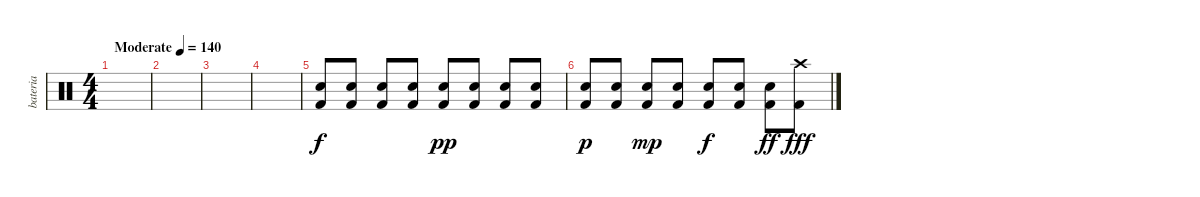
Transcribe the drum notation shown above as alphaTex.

\track ("bateria" "bateria") {instrument percussion}
\staff {score}
\articulation defaults
\ts (4 4)
\tempo (140 "Moderate")
\clef neutral
\ks c
|
|
|
|
("Electric Snare (hit)" "Kick (hit) 2").8 ("Electric Snare (hit)" "Kick (hit) 2").8 ("Electric Snare (hit)" "Kick (hit) 2").8 ("Electric Snare (hit)" "Kick (hit) 2").8 ("Electric Snare (hit)" "Kick (hit) 2").8{dy pp} ("Electric Snare (hit)" "Kick (hit) 2").8 ("Electric Snare (hit)" "Kick (hit) 2").8 ("Electric Snare (hit)" "Kick (hit) 2").8 |
("Electric Snare (hit)" "Kick (hit) 2").8{dy p} ("Electric Snare (hit)" "Kick (hit) 2").8 ("Electric Snare (hit)" "Kick (hit) 2").8{dy mp} ("Electric Snare (hit)" "Kick (hit) 2").8 ("Electric Snare (hit)" "Kick (hit) 2").8{dy f} ("Electric Snare (hit)" "Kick (hit) 2").8 ("Electric Snare (hit)" "Kick (hit) 2").8{dy ff} ("Crash high (hit)" "Kick (hit) 2").8{dy fff}
